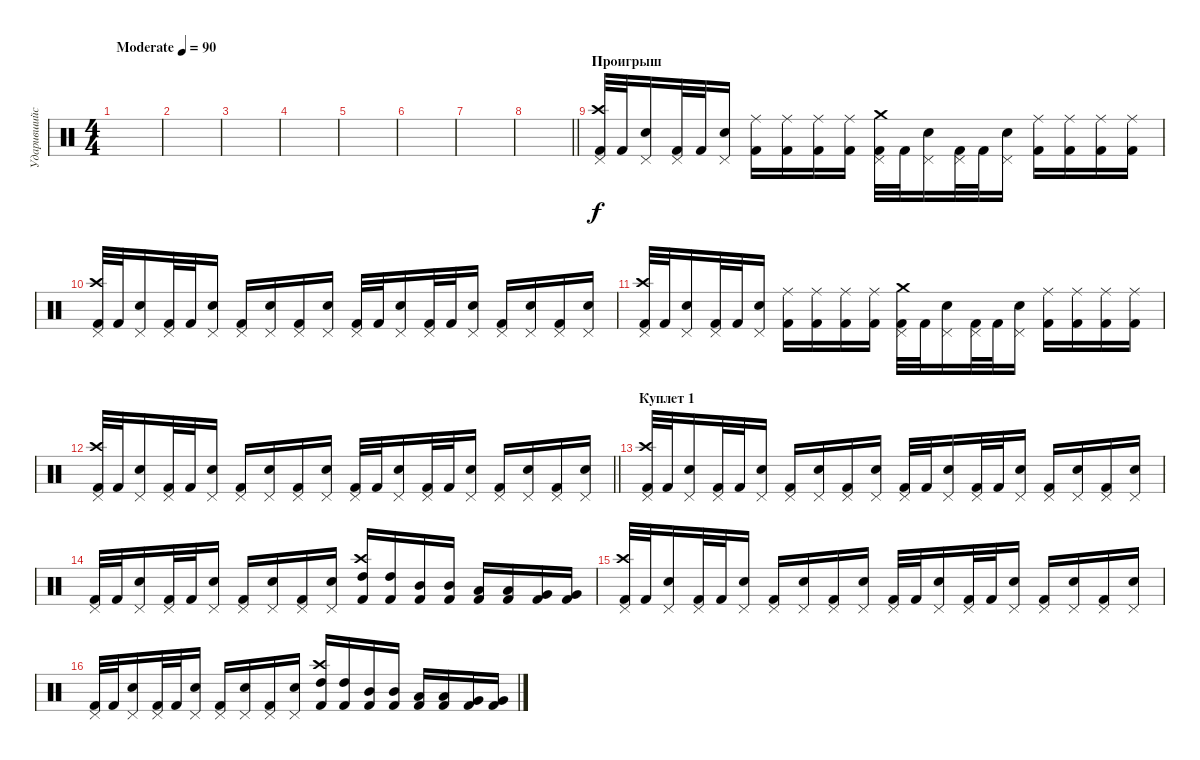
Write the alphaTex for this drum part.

\track ("Ударившийся" "Ударившийс") {instrument percussion}
\staff {score}
\articulation defaults
\ts (4 4)
\tempo (90 "Moderate")
\clef neutral
\ks c
|
|
|
|
|
|
|
\barLineRight lightlight
|
\section ("" "Проигрыш")
("Kick (hit) 2" "Crash high (hit)" "Pedal Hi-Hat (hit)").32 "Kick (hit) 2".32 ("Snare (hit) 2" "Pedal Hi-Hat (hit)").16 ("Kick (hit) 2" "Pedal Hi-Hat (hit)").32 "Kick (hit) 2".32 ("Snare (hit) 2" "Pedal Hi-Hat (hit)").16 ("Kick (hit) 2" "Ride (middle)").16 ("Kick (hit) 2" "Ride (middle)").16 ("Kick (hit) 2" "Ride (middle)").16 ("Kick (hit) 2" "Ride (middle)").16 ("Kick (hit) 2" "Crash medium (hit)" "Pedal Hi-Hat (hit)").32 "Kick (hit) 2".32 ("Snare (hit) 2" "Pedal Hi-Hat (hit)").16 ("Kick (hit) 2" "Pedal Hi-Hat (hit)").32 "Kick (hit) 2".32 ("Snare (hit) 2" "Pedal Hi-Hat (hit)").16 ("Kick (hit) 2" "Ride (middle)").16 ("Kick (hit) 2" "Ride (middle)").16 ("Kick (hit) 2" "Ride (middle)").16 ("Kick (hit) 2" "Ride (middle)").16 |
("Kick (hit) 2" "Crash high (hit)" "Pedal Hi-Hat (hit)").32 "Kick (hit) 2".32 ("Snare (hit) 2" "Pedal Hi-Hat (hit)").16 ("Kick (hit) 2" "Pedal Hi-Hat (hit)").32 "Kick (hit) 2".32 ("Snare (hit) 2" "Pedal Hi-Hat (hit)").16 ("Kick (hit) 2" "Pedal Hi-Hat (hit)").16 ("Snare (hit) 2" "Pedal Hi-Hat (hit)").16 ("Kick (hit) 2" "Pedal Hi-Hat (hit)").16 ("Snare (hit) 2" "Pedal Hi-Hat (hit)").16 ("Kick (hit) 2" "Pedal Hi-Hat (hit)").32 "Kick (hit) 2".32 ("Snare (hit) 2" "Pedal Hi-Hat (hit)").16 ("Kick (hit) 2" "Pedal Hi-Hat (hit)").32 "Kick (hit) 2".32 ("Snare (hit) 2" "Pedal Hi-Hat (hit)").16 ("Kick (hit) 2" "Pedal Hi-Hat (hit)").16 ("Snare (hit) 2" "Pedal Hi-Hat (hit)").16 ("Kick (hit) 2" "Pedal Hi-Hat (hit)").16 ("Snare (hit) 2" "Pedal Hi-Hat (hit)").16 |
("Kick (hit) 2" "Crash high (hit)" "Pedal Hi-Hat (hit)").32 "Kick (hit) 2".32 ("Snare (hit) 2" "Pedal Hi-Hat (hit)").16 ("Kick (hit) 2" "Pedal Hi-Hat (hit)").32 "Kick (hit) 2".32 ("Snare (hit) 2" "Pedal Hi-Hat (hit)").16 ("Kick (hit) 2" "Ride (middle)").16 ("Kick (hit) 2" "Ride (middle)").16 ("Kick (hit) 2" "Ride (middle)").16 ("Kick (hit) 2" "Ride (middle)").16 ("Kick (hit) 2" "Crash medium (hit)" "Pedal Hi-Hat (hit)").32 "Kick (hit) 2".32 ("Snare (hit) 2" "Pedal Hi-Hat (hit)").16 ("Kick (hit) 2" "Pedal Hi-Hat (hit)").32 "Kick (hit) 2".32 ("Snare (hit) 2" "Pedal Hi-Hat (hit)").16 ("Kick (hit) 2" "Ride (middle)").16 ("Kick (hit) 2" "Ride (middle)").16 ("Kick (hit) 2" "Ride (middle)").16 ("Kick (hit) 2" "Ride (middle)").16 |
\barLineRight lightlight
("Kick (hit) 2" "Crash high (hit)" "Pedal Hi-Hat (hit)").32 "Kick (hit) 2".32 ("Snare (hit) 2" "Pedal Hi-Hat (hit)").16 ("Kick (hit) 2" "Pedal Hi-Hat (hit)").32 "Kick (hit) 2".32 ("Snare (hit) 2" "Pedal Hi-Hat (hit)").16 ("Kick (hit) 2" "Pedal Hi-Hat (hit)").16 ("Snare (hit) 2" "Pedal Hi-Hat (hit)").16 ("Kick (hit) 2" "Pedal Hi-Hat (hit)").16 ("Snare (hit) 2" "Pedal Hi-Hat (hit)").16 ("Kick (hit) 2" "Pedal Hi-Hat (hit)").32 "Kick (hit) 2".32 ("Snare (hit) 2" "Pedal Hi-Hat (hit)").16 ("Kick (hit) 2" "Pedal Hi-Hat (hit)").32 "Kick (hit) 2".32 ("Snare (hit) 2" "Pedal Hi-Hat (hit)").16 ("Kick (hit) 2" "Pedal Hi-Hat (hit)").16 ("Snare (hit) 2" "Pedal Hi-Hat (hit)").16 ("Kick (hit) 2" "Pedal Hi-Hat (hit)").16 ("Snare (hit) 2" "Pedal Hi-Hat (hit)").16 |
\section ("" "Куплет 1")
("Kick (hit) 2" "Crash high (hit)" "Pedal Hi-Hat (hit)").32 "Kick (hit) 2".32 ("Snare (hit) 2" "Pedal Hi-Hat (hit)").16 ("Kick (hit) 2" "Pedal Hi-Hat (hit)").32 "Kick (hit) 2".32 ("Snare (hit) 2" "Pedal Hi-Hat (hit)").16 ("Kick (hit) 2" "Pedal Hi-Hat (hit)").16 ("Snare (hit) 2" "Pedal Hi-Hat (hit)").16 ("Kick (hit) 2" "Pedal Hi-Hat (hit)").16 ("Snare (hit) 2" "Pedal Hi-Hat (hit)").16 ("Kick (hit) 2" "Pedal Hi-Hat (hit)").32 "Kick (hit) 2".32 ("Snare (hit) 2" "Pedal Hi-Hat (hit)").16 ("Kick (hit) 2" "Pedal Hi-Hat (hit)").32 "Kick (hit) 2".32 ("Snare (hit) 2" "Pedal Hi-Hat (hit)").16 ("Kick (hit) 2" "Pedal Hi-Hat (hit)").16 ("Snare (hit) 2" "Pedal Hi-Hat (hit)").16 ("Kick (hit) 2" "Pedal Hi-Hat (hit)").16 ("Snare (hit) 2" "Pedal Hi-Hat (hit)").16 |
("Kick (hit) 2" "Pedal Hi-Hat (hit)").32 "Kick (hit) 2".32 ("Snare (hit) 2" "Pedal Hi-Hat (hit)").16 ("Kick (hit) 2" "Pedal Hi-Hat (hit)").32 "Kick (hit) 2".32 ("Snare (hit) 2" "Pedal Hi-Hat (hit)").16 ("Kick (hit) 2" "Pedal Hi-Hat (hit)").16 ("Snare (hit) 2" "Pedal Hi-Hat (hit)").16 ("Kick (hit) 2" "Pedal Hi-Hat (hit)").16 ("Snare (hit) 2" "Pedal Hi-Hat (hit)").16 ("High Tom (hit)" "Kick (hit) 2" "Crash high (hit)").16 ("High Tom (hit)" "Kick (hit) 2").16 ("Mid Tom (hit)" "Kick (hit) 2").16 ("Mid Tom (hit)" "Kick (hit) 2").16 ("Low Tom (hit)" "Kick (hit) 2").16 ("Low Tom (hit)" "Kick (hit) 2").16 ("Very Low Tom (hit)" "Kick (hit) 2").16 ("Very Low Tom (hit)" "Kick (hit) 2").16 |
("Kick (hit) 2" "Crash high (hit)" "Pedal Hi-Hat (hit)").32 "Kick (hit) 2".32 ("Snare (hit) 2" "Pedal Hi-Hat (hit)").16 ("Kick (hit) 2" "Pedal Hi-Hat (hit)").32 "Kick (hit) 2".32 ("Snare (hit) 2" "Pedal Hi-Hat (hit)").16 ("Kick (hit) 2" "Pedal Hi-Hat (hit)").16 ("Snare (hit) 2" "Pedal Hi-Hat (hit)").16 ("Kick (hit) 2" "Pedal Hi-Hat (hit)").16 ("Snare (hit) 2" "Pedal Hi-Hat (hit)").16 ("Kick (hit) 2" "Pedal Hi-Hat (hit)").32 "Kick (hit) 2".32 ("Snare (hit) 2" "Pedal Hi-Hat (hit)").16 ("Kick (hit) 2" "Pedal Hi-Hat (hit)").32 "Kick (hit) 2".32 ("Snare (hit) 2" "Pedal Hi-Hat (hit)").16 ("Kick (hit) 2" "Pedal Hi-Hat (hit)").16 ("Snare (hit) 2" "Pedal Hi-Hat (hit)").16 ("Kick (hit) 2" "Pedal Hi-Hat (hit)").16 ("Snare (hit) 2" "Pedal Hi-Hat (hit)").16 |
("Kick (hit) 2" "Pedal Hi-Hat (hit)").32 "Kick (hit) 2".32 ("Snare (hit) 2" "Pedal Hi-Hat (hit)").16 ("Kick (hit) 2" "Pedal Hi-Hat (hit)").32 "Kick (hit) 2".32 ("Snare (hit) 2" "Pedal Hi-Hat (hit)").16 ("Kick (hit) 2" "Pedal Hi-Hat (hit)").16 ("Snare (hit) 2" "Pedal Hi-Hat (hit)").16 ("Kick (hit) 2" "Pedal Hi-Hat (hit)").16 ("Snare (hit) 2" "Pedal Hi-Hat (hit)").16 ("High Tom (hit)" "Kick (hit) 2" "Crash high (hit)").16 ("High Tom (hit)" "Kick (hit) 2").16 ("Mid Tom (hit)" "Kick (hit) 2").16 ("Mid Tom (hit)" "Kick (hit) 2").16 ("Low Tom (hit)" "Kick (hit) 2").16 ("Low Tom (hit)" "Kick (hit) 2").16 ("Very Low Tom (hit)" "Kick (hit) 2").16 ("Very Low Tom (hit)" "Kick (hit) 2").16
